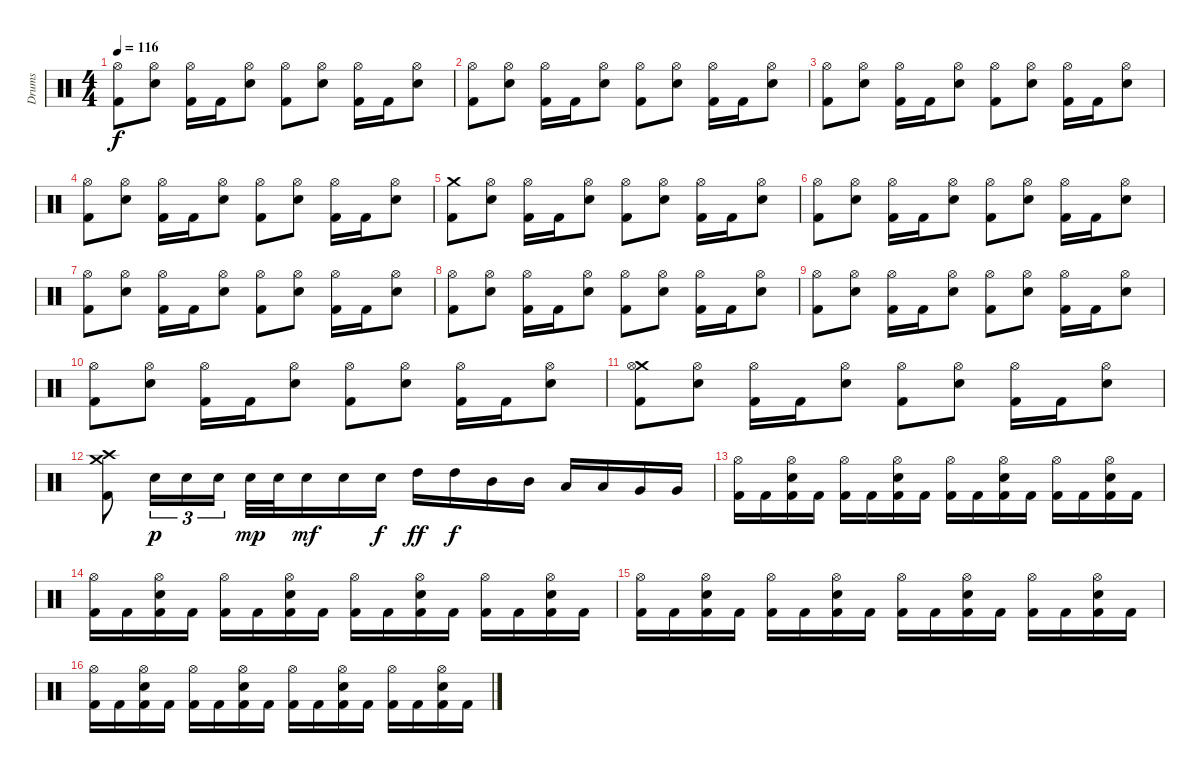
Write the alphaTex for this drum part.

\track ("Drums" "Drums") {instrument percussion}
\staff {score}
\articulation defaults
\ts (4 4)
\tempo 116
\clef neutral
\ks c
("Hi-Hat (open)" "Kick (hit) 2").8{dy f} ("Hi-Hat (open)" "Electric Snare (hit)").8 ("Hi-Hat (open)" "Kick (hit) 2").16 "Kick (hit) 2".16 ("Hi-Hat (open)" "Electric Snare (hit)").8 ("Hi-Hat (open)" "Kick (hit) 2").8 ("Hi-Hat (open)" "Electric Snare (hit)").8 ("Hi-Hat (open)" "Kick (hit) 2").16 "Kick (hit) 2".16 ("Hi-Hat (open)" "Electric Snare (hit)").8 |
("Hi-Hat (open)" "Kick (hit) 2").8 ("Hi-Hat (open)" "Electric Snare (hit)").8 ("Hi-Hat (open)" "Kick (hit) 2").16 "Kick (hit) 2".16 ("Hi-Hat (open)" "Electric Snare (hit)").8 ("Hi-Hat (open)" "Kick (hit) 2").8 ("Hi-Hat (open)" "Electric Snare (hit)").8 ("Hi-Hat (open)" "Kick (hit) 2").16 "Kick (hit) 2".16 ("Hi-Hat (open)" "Electric Snare (hit)").8 |
("Hi-Hat (open)" "Kick (hit) 2").8 ("Hi-Hat (open)" "Electric Snare (hit)").8 ("Hi-Hat (open)" "Kick (hit) 2").16 "Kick (hit) 2".16 ("Hi-Hat (open)" "Electric Snare (hit)").8 ("Hi-Hat (open)" "Kick (hit) 2").8 ("Hi-Hat (open)" "Electric Snare (hit)").8 ("Hi-Hat (open)" "Kick (hit) 2").16 "Kick (hit) 2".16 ("Hi-Hat (open)" "Electric Snare (hit)").8 |
("Hi-Hat (open)" "Kick (hit) 2").8 ("Hi-Hat (open)" "Electric Snare (hit)").8 ("Hi-Hat (open)" "Kick (hit) 2").16 "Kick (hit) 2".16 ("Hi-Hat (open)" "Electric Snare (hit)").8 ("Hi-Hat (open)" "Kick (hit) 2").8 ("Hi-Hat (open)" "Electric Snare (hit)").8 ("Hi-Hat (open)" "Kick (hit) 2").16 "Kick (hit) 2".16 ("Hi-Hat (open)" "Electric Snare (hit)").8 |
("Crash medium (hit)" "Kick (hit) 2").8 ("Hi-Hat (open)" "Electric Snare (hit)").8 ("Hi-Hat (open)" "Kick (hit) 2").16 "Kick (hit) 2".16 ("Hi-Hat (open)" "Electric Snare (hit)").8 ("Hi-Hat (open)" "Kick (hit) 2").8 ("Hi-Hat (open)" "Electric Snare (hit)").8 ("Hi-Hat (open)" "Kick (hit) 2").16 "Kick (hit) 2".16 ("Hi-Hat (open)" "Electric Snare (hit)").8 |
("Hi-Hat (open)" "Kick (hit) 2").8 ("Hi-Hat (open)" "Electric Snare (hit)").8 ("Hi-Hat (open)" "Kick (hit) 2").16 "Kick (hit) 2".16 ("Hi-Hat (open)" "Electric Snare (hit)").8 ("Hi-Hat (open)" "Kick (hit) 2").8 ("Hi-Hat (open)" "Electric Snare (hit)").8 ("Hi-Hat (open)" "Kick (hit) 2").16 "Kick (hit) 2".16 ("Hi-Hat (open)" "Electric Snare (hit)").8 |
("Hi-Hat (open)" "Kick (hit) 2").8 ("Hi-Hat (open)" "Electric Snare (hit)").8 ("Hi-Hat (open)" "Kick (hit) 2").16 "Kick (hit) 2".16 ("Hi-Hat (open)" "Electric Snare (hit)").8 ("Hi-Hat (open)" "Kick (hit) 2").8 ("Hi-Hat (open)" "Electric Snare (hit)").8 ("Hi-Hat (open)" "Kick (hit) 2").16 "Kick (hit) 2".16 ("Hi-Hat (open)" "Electric Snare (hit)").8 |
("Hi-Hat (open)" "Kick (hit) 2").8 ("Hi-Hat (open)" "Electric Snare (hit)").8 ("Hi-Hat (open)" "Kick (hit) 2").16 "Kick (hit) 2".16 ("Hi-Hat (open)" "Electric Snare (hit)").8 ("Hi-Hat (open)" "Kick (hit) 2").8 ("Hi-Hat (open)" "Electric Snare (hit)").8 ("Hi-Hat (open)" "Kick (hit) 2").16 "Kick (hit) 2".16 ("Hi-Hat (open)" "Electric Snare (hit)").8 |
("Hi-Hat (open)" "Kick (hit) 2").8 ("Hi-Hat (open)" "Electric Snare (hit)").8 ("Hi-Hat (open)" "Kick (hit) 2").16 "Kick (hit) 2".16 ("Hi-Hat (open)" "Electric Snare (hit)").8 ("Hi-Hat (open)" "Kick (hit) 2").8 ("Hi-Hat (open)" "Electric Snare (hit)").8 ("Hi-Hat (open)" "Kick (hit) 2").16 "Kick (hit) 2".16 ("Hi-Hat (open)" "Electric Snare (hit)").8 |
("Hi-Hat (open)" "Kick (hit) 2").8 ("Hi-Hat (open)" "Electric Snare (hit)").8 ("Hi-Hat (open)" "Kick (hit) 2").16 "Kick (hit) 2".16 ("Hi-Hat (open)" "Electric Snare (hit)").8 ("Hi-Hat (open)" "Kick (hit) 2").8 ("Hi-Hat (open)" "Electric Snare (hit)").8 ("Hi-Hat (open)" "Kick (hit) 2").16 "Kick (hit) 2".16 ("Hi-Hat (open)" "Electric Snare (hit)").8 |
("Crash medium (hit)" "Hi-Hat (open)" "Kick (hit) 2").8 ("Hi-Hat (open)" "Electric Snare (hit)").8 ("Hi-Hat (open)" "Kick (hit) 2").16 "Kick (hit) 2".16 ("Hi-Hat (open)" "Electric Snare (hit)").8 ("Hi-Hat (open)" "Kick (hit) 2").8 ("Hi-Hat (open)" "Electric Snare (hit)").8 ("Hi-Hat (open)" "Kick (hit) 2").16 "Kick (hit) 2".16 ("Hi-Hat (open)" "Electric Snare (hit)").8 |
("Crash medium (hit)" "Crash high (hit)" "Kick (hit) 2").8 "Electric Snare (hit)".16{tu (3 2) dy p} "Electric Snare (hit)".16{tu (3 2)} "Electric Snare (hit)".16{tu (3 2)} "Electric Snare (hit)".32{dy mp} "Electric Snare (hit)".32 "Electric Snare (hit)".16{dy mf} "Electric Snare (hit)".16 "Electric Snare (hit)".16{dy f} "High Tom (hit)".16{dy ff} "High Tom (hit)".16{dy f} "Mid Tom (hit)".16 "Mid Tom (hit)".16 "Low Tom (hit)".16 "Low Tom (hit)".16 "Very Low Tom (hit)".16 "Very Low Tom (hit)".16 |
("Hi-Hat (open)" "Kick (hit) 2").16 "Kick (hit) 2".16 ("Hi-Hat (open)" "Electric Snare (hit)" "Kick (hit) 2").16 "Kick (hit) 2".16 ("Hi-Hat (open)" "Kick (hit) 2").16 "Kick (hit) 2".16 ("Hi-Hat (open)" "Electric Snare (hit)" "Kick (hit) 2").16 "Kick (hit) 2".16 ("Hi-Hat (open)" "Kick (hit) 2").16 "Kick (hit) 2".16 ("Hi-Hat (open)" "Electric Snare (hit)" "Kick (hit) 2").16 "Kick (hit) 2".16 ("Hi-Hat (open)" "Kick (hit) 2").16 "Kick (hit) 2".16 ("Hi-Hat (open)" "Electric Snare (hit)" "Kick (hit) 2").16 "Kick (hit) 2".16 |
("Hi-Hat (open)" "Kick (hit) 2").16 "Kick (hit) 2".16 ("Hi-Hat (open)" "Electric Snare (hit)" "Kick (hit) 2").16 "Kick (hit) 2".16 ("Hi-Hat (open)" "Kick (hit) 2").16 "Kick (hit) 2".16 ("Hi-Hat (open)" "Electric Snare (hit)" "Kick (hit) 2").16 "Kick (hit) 2".16 ("Hi-Hat (open)" "Kick (hit) 2").16 "Kick (hit) 2".16 ("Hi-Hat (open)" "Electric Snare (hit)" "Kick (hit) 2").16 "Kick (hit) 2".16 ("Hi-Hat (open)" "Kick (hit) 2").16 "Kick (hit) 2".16 ("Hi-Hat (open)" "Electric Snare (hit)" "Kick (hit) 2").16 "Kick (hit) 2".16 |
("Hi-Hat (open)" "Kick (hit) 2").16 "Kick (hit) 2".16 ("Hi-Hat (open)" "Electric Snare (hit)" "Kick (hit) 2").16 "Kick (hit) 2".16 ("Hi-Hat (open)" "Kick (hit) 2").16 "Kick (hit) 2".16 ("Hi-Hat (open)" "Electric Snare (hit)" "Kick (hit) 2").16 "Kick (hit) 2".16 ("Hi-Hat (open)" "Kick (hit) 2").16 "Kick (hit) 2".16 ("Hi-Hat (open)" "Electric Snare (hit)" "Kick (hit) 2").16 "Kick (hit) 2".16 ("Hi-Hat (open)" "Kick (hit) 2").16 "Kick (hit) 2".16 ("Hi-Hat (open)" "Electric Snare (hit)" "Kick (hit) 2").16 "Kick (hit) 2".16 |
("Hi-Hat (open)" "Kick (hit) 2").16 "Kick (hit) 2".16 ("Hi-Hat (open)" "Electric Snare (hit)" "Kick (hit) 2").16 "Kick (hit) 2".16 ("Hi-Hat (open)" "Kick (hit) 2").16 "Kick (hit) 2".16 ("Hi-Hat (open)" "Electric Snare (hit)" "Kick (hit) 2").16 "Kick (hit) 2".16 ("Hi-Hat (open)" "Kick (hit) 2").16 "Kick (hit) 2".16 ("Hi-Hat (open)" "Electric Snare (hit)" "Kick (hit) 2").16 "Kick (hit) 2".16 ("Hi-Hat (open)" "Kick (hit) 2").16 "Kick (hit) 2".16 ("Hi-Hat (open)" "Electric Snare (hit)" "Kick (hit) 2").16 "Kick (hit) 2".16
